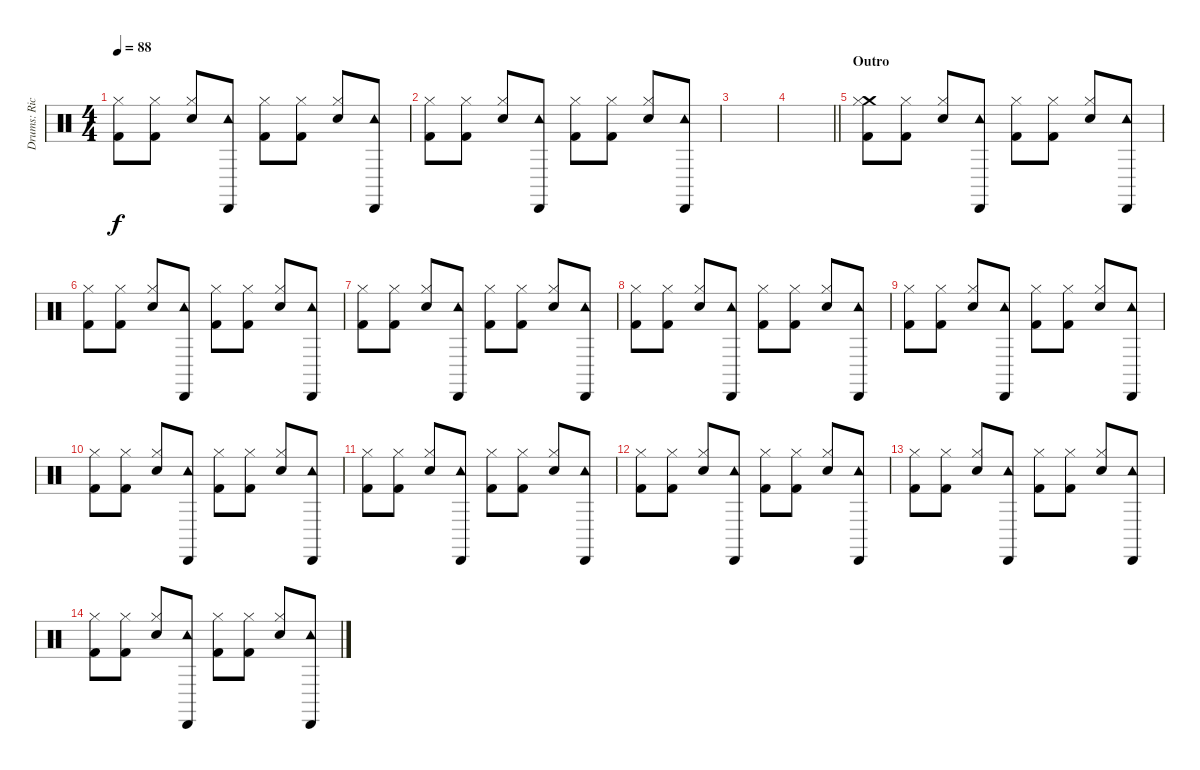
\track ("Drums: Richard Allen" "Drums: Ric") {instrument percussion}
\staff {score}
\articulation defaults
\ts (4 4)
\tempo 88
\clef neutral
\ks c
("Hi-Hat (closed)" "Kick (hit) 2").8{dy f} ("Hi-Hat (closed)" "Kick (hit) 2").8 ("Hi-Hat (closed)" "Snare (hit) 2").8 ("Cabasa (hit)" "Tambourine (hit)").8 ("Hi-Hat (closed)" "Kick (hit) 2").8 ("Hi-Hat (closed)" "Kick (hit) 2").8 ("Hi-Hat (closed)" "Snare (hit) 2").8 ("Cabasa (hit)" "Tambourine (hit)").8 |
("Hi-Hat (closed)" "Kick (hit) 2").8 ("Hi-Hat (closed)" "Kick (hit) 2").8 ("Hi-Hat (closed)" "Snare (hit) 2").8 ("Cabasa (hit)" "Tambourine (hit)").8 ("Hi-Hat (closed)" "Kick (hit) 2").8 ("Hi-Hat (closed)" "Kick (hit) 2").8 ("Hi-Hat (closed)" "Snare (hit) 2").8 ("Cabasa (hit)" "Tambourine (hit)").8 |
|
\barLineRight lightlight
|
\section ("" "Outro")
("Crash medium (hit)" "Hi-Hat (closed)" "Kick (hit) 2").8 ("Hi-Hat (closed)" "Kick (hit) 2").8 ("Hi-Hat (closed)" "Snare (hit) 2").8 ("Cabasa (hit)" "Tambourine (hit)").8 ("Hi-Hat (closed)" "Kick (hit) 2").8 ("Hi-Hat (closed)" "Kick (hit) 2").8 ("Hi-Hat (closed)" "Snare (hit) 2").8 ("Cabasa (hit)" "Tambourine (hit)").8 |
("Hi-Hat (closed)" "Kick (hit) 2").8 ("Hi-Hat (closed)" "Kick (hit) 2").8 ("Hi-Hat (closed)" "Snare (hit) 2").8 ("Cabasa (hit)" "Tambourine (hit)").8 ("Hi-Hat (closed)" "Kick (hit) 2").8 ("Hi-Hat (closed)" "Kick (hit) 2").8 ("Hi-Hat (closed)" "Snare (hit) 2").8 ("Cabasa (hit)" "Tambourine (hit)").8 |
("Hi-Hat (closed)" "Kick (hit) 2").8 ("Hi-Hat (closed)" "Kick (hit) 2").8 ("Hi-Hat (closed)" "Snare (hit) 2").8 ("Cabasa (hit)" "Tambourine (hit)").8 ("Hi-Hat (closed)" "Kick (hit) 2").8 ("Hi-Hat (closed)" "Kick (hit) 2").8 ("Hi-Hat (closed)" "Snare (hit) 2").8 ("Cabasa (hit)" "Tambourine (hit)").8 |
("Hi-Hat (closed)" "Kick (hit) 2").8 ("Hi-Hat (closed)" "Kick (hit) 2").8 ("Hi-Hat (closed)" "Snare (hit) 2").8 ("Cabasa (hit)" "Tambourine (hit)").8 ("Hi-Hat (closed)" "Kick (hit) 2").8 ("Hi-Hat (closed)" "Kick (hit) 2").8 ("Hi-Hat (closed)" "Snare (hit) 2").8 ("Cabasa (hit)" "Tambourine (hit)").8 |
("Hi-Hat (closed)" "Kick (hit) 2").8 ("Hi-Hat (closed)" "Kick (hit) 2").8 ("Hi-Hat (closed)" "Snare (hit) 2").8 ("Cabasa (hit)" "Tambourine (hit)").8 ("Hi-Hat (closed)" "Kick (hit) 2").8 ("Hi-Hat (closed)" "Kick (hit) 2").8 ("Hi-Hat (closed)" "Snare (hit) 2").8 ("Cabasa (hit)" "Tambourine (hit)").8 |
("Hi-Hat (closed)" "Kick (hit) 2").8 ("Hi-Hat (closed)" "Kick (hit) 2").8 ("Hi-Hat (closed)" "Snare (hit) 2").8 ("Cabasa (hit)" "Tambourine (hit)").8 ("Hi-Hat (closed)" "Kick (hit) 2").8 ("Hi-Hat (closed)" "Kick (hit) 2").8 ("Hi-Hat (closed)" "Snare (hit) 2").8 ("Cabasa (hit)" "Tambourine (hit)").8 |
("Hi-Hat (closed)" "Kick (hit) 2").8 ("Hi-Hat (closed)" "Kick (hit) 2").8 ("Hi-Hat (closed)" "Snare (hit) 2").8 ("Cabasa (hit)" "Tambourine (hit)").8 ("Hi-Hat (closed)" "Kick (hit) 2").8 ("Hi-Hat (closed)" "Kick (hit) 2").8 ("Hi-Hat (closed)" "Snare (hit) 2").8 ("Cabasa (hit)" "Tambourine (hit)").8 |
("Hi-Hat (closed)" "Kick (hit) 2").8{volume 0} ("Hi-Hat (closed)" "Kick (hit) 2").8 ("Hi-Hat (closed)" "Snare (hit) 2").8 ("Cabasa (hit)" "Tambourine (hit)").8 ("Hi-Hat (closed)" "Kick (hit) 2").8 ("Hi-Hat (closed)" "Kick (hit) 2").8 ("Hi-Hat (closed)" "Snare (hit) 2").8 ("Cabasa (hit)" "Tambourine (hit)").8 |
("Hi-Hat (closed)" "Kick (hit) 2").8 ("Hi-Hat (closed)" "Kick (hit) 2").8 ("Hi-Hat (closed)" "Snare (hit) 2").8 ("Cabasa (hit)" "Tambourine (hit)").8 ("Hi-Hat (closed)" "Kick (hit) 2").8 ("Hi-Hat (closed)" "Kick (hit) 2").8 ("Hi-Hat (closed)" "Snare (hit) 2").8 ("Cabasa (hit)" "Tambourine (hit)").8 |
("Hi-Hat (closed)" "Kick (hit) 2").8 ("Hi-Hat (closed)" "Kick (hit) 2").8 ("Hi-Hat (closed)" "Snare (hit) 2").8 ("Cabasa (hit)" "Tambourine (hit)").8 ("Hi-Hat (closed)" "Kick (hit) 2").8 ("Hi-Hat (closed)" "Kick (hit) 2").8 ("Hi-Hat (closed)" "Snare (hit) 2").8 ("Cabasa (hit)" "Tambourine (hit)").8
